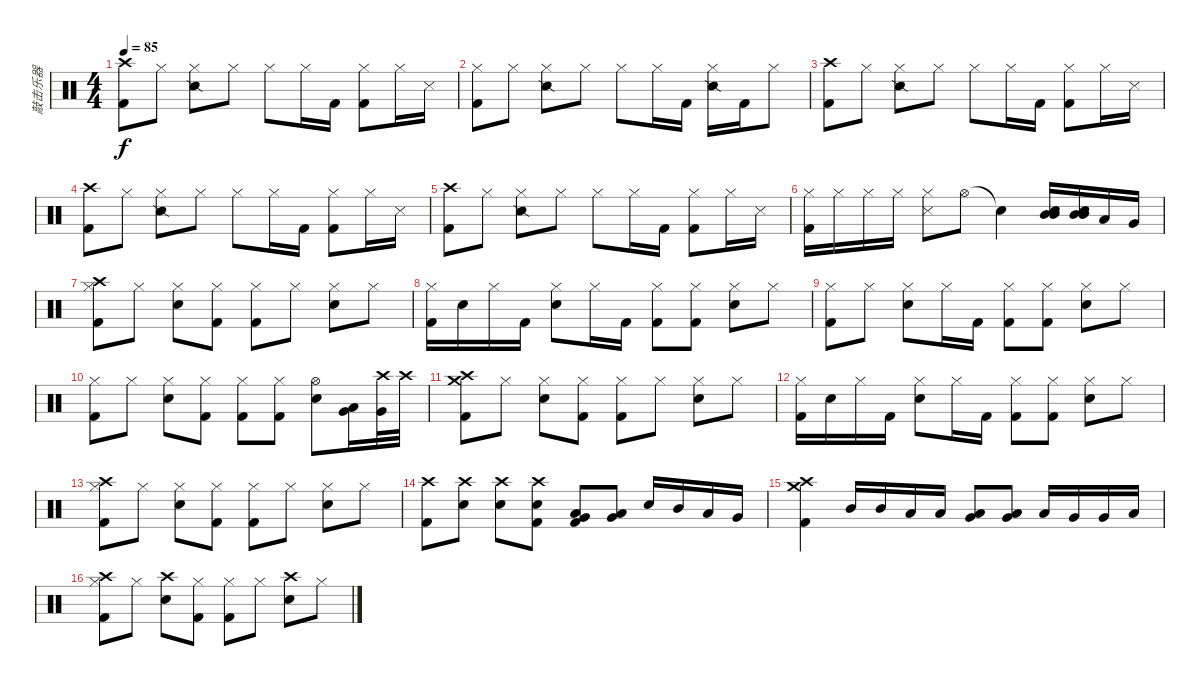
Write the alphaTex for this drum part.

\track ("敲击乐器" "敲击乐器") {instrument percussion}
\staff {score}
\articulation defaults
\ts (4 4)
\tempo 85
\clef neutral
\ks c
("Crash high (hit)" "Kick (hit) 2").8{dy f} "Hi-Hat (closed)".8 ("Snare (side stick) 2" "Hi-Hat (closed)").8 "Hi-Hat (closed)".8 "Hi-Hat (closed)".8 "Hi-Hat (closed)".16 "Kick (hit) 2".16 ("Hi-Hat (closed)" "Kick (hit) 2").8 "Hi-Hat (closed)".16 "Snare (side stick) 3".16 |
("Hi-Hat (closed)" "Kick (hit) 2").8 "Hi-Hat (closed)".8 ("Snare (side stick) 2" "Hi-Hat (closed)").8 "Hi-Hat (closed)".8 "Hi-Hat (closed)".8 "Hi-Hat (closed)".16 "Kick (hit) 2".16 ("Snare (side stick) 2" "Hi-Hat (closed)").16 "Kick (hit) 2".16 "Hi-Hat (closed)".8 |
("Crash high (hit)" "Kick (hit) 2").8 "Hi-Hat (closed)".8 ("Snare (side stick) 2" "Hi-Hat (closed)").8 "Hi-Hat (closed)".8 "Hi-Hat (closed)".8 "Hi-Hat (closed)".16 "Kick (hit) 2".16 ("Hi-Hat (closed)" "Kick (hit) 2").8 "Hi-Hat (closed)".16 "Snare (side stick) 3".16 |
("Crash high (hit)" "Kick (hit) 2").8 "Hi-Hat (closed)".8 ("Snare (side stick) 2" "Hi-Hat (closed)").8 "Hi-Hat (closed)".8 "Hi-Hat (closed)".8 "Hi-Hat (closed)".16 "Kick (hit) 2".16 ("Hi-Hat (closed)" "Kick (hit) 2").8 "Hi-Hat (closed)".16 "Snare (side stick) 3".16 |
("Crash high (hit)" "Kick (hit) 2").8 "Hi-Hat (closed)".8 ("Snare (side stick) 2" "Hi-Hat (closed)").8 "Hi-Hat (closed)".8 "Hi-Hat (closed)".8 "Hi-Hat (closed)".16 "Kick (hit) 2".16 ("Hi-Hat (closed)" "Kick (hit) 2").8 "Hi-Hat (closed)".16 "Snare (side stick) 3".16 |
("Hi-Hat (closed)" "Kick (hit) 2").16 "Hi-Hat (closed)".16 "Hi-Hat (closed)".16 "Hi-Hat (closed)".16 ("Snare (side stick) 3" "Hi-Hat (closed)").8 "Hi-Hat (open)".8 "Snare (hit)"{t}.4 ("Mid Tom (hit)" "Mid Tom (hit)" "Electric Snare (hit)").16 ("Mid Tom (hit)" "Mid Tom (hit)" "Electric Snare (hit)").16 "Low Tom (hit)".16 "Very Low Tom (hit)".16 |
("Crash high (hit)" "Hi-Hat (closed)" "Kick (hit) 2").8 "Hi-Hat (closed)".8 ("Snare (hit) 2" "Hi-Hat (closed)").8 ("Hi-Hat (closed)" "Kick (hit) 2").8 ("Hi-Hat (closed)" "Kick (hit) 2").8 "Hi-Hat (closed)".8 ("Snare (hit) 2" "Hi-Hat (closed)").8 "Hi-Hat (closed)".8 |
("Hi-Hat (closed)" "Kick (hit) 2").16 "Snare (hit) 2".16 "Hi-Hat (closed)".16 "Kick (hit) 2".16 ("Snare (hit) 2" "Hi-Hat (closed)").8 "Hi-Hat (closed)".16 "Kick (hit) 2".16 ("Hi-Hat (closed)" "Kick (hit) 2").8 ("Hi-Hat (closed)" "Kick (hit) 2").8 ("Snare (hit) 2" "Hi-Hat (closed)").8 "Hi-Hat (closed)".8 |
("Hi-Hat (closed)" "Kick (hit) 2").8 "Hi-Hat (closed)".8 ("Snare (hit) 2" "Hi-Hat (closed)").8 "Hi-Hat (closed)".16 "Kick (hit) 2".16 ("Hi-Hat (closed)" "Kick (hit) 2").8 ("Hi-Hat (closed)" "Kick (hit) 2").8 ("Snare (hit) 2" "Hi-Hat (closed)").8 "Hi-Hat (closed)".8 |
("Hi-Hat (closed)" "Kick (hit) 2").8 "Hi-Hat (closed)".8 ("Snare (hit) 2" "Hi-Hat (closed)").8 ("Hi-Hat (closed)" "Kick (hit) 2").8 ("Hi-Hat (closed)" "Kick (hit) 2").8 ("Hi-Hat (closed)" "Kick (hit) 2").8 ("Snare (hit) 2" "Hi-Hat (open)").8 ("Very Low Tom (hit)" "Low Tom (hit)").16 ("Crash high (hit)" "Very Low Tom (hit)").32 "Crash high (hit)".32 |
("Crash high (hit)" "Crash medium (hit)" "Kick (hit) 2").8 "Hi-Hat (closed)".8 ("Snare (hit) 2" "Hi-Hat (closed)").8 ("Hi-Hat (closed)" "Kick (hit) 2").8 ("Hi-Hat (closed)" "Kick (hit) 2").8 "Hi-Hat (closed)".8 ("Snare (hit) 2" "Hi-Hat (closed)").8 "Hi-Hat (closed)".8 |
("Hi-Hat (closed)" "Kick (hit) 2").16 "Snare (hit) 2".16 "Hi-Hat (closed)".16 "Kick (hit) 2".16 ("Snare (hit) 2" "Hi-Hat (closed)").8 "Hi-Hat (closed)".16 "Kick (hit) 2".16 ("Hi-Hat (closed)" "Kick (hit) 2").8 ("Hi-Hat (closed)" "Kick (hit) 2").8 ("Snare (hit) 2" "Hi-Hat (closed)").8 "Hi-Hat (closed)".8 |
("Crash high (hit)" "Hi-Hat (closed)" "Kick (hit) 2").8 "Hi-Hat (closed)".8 ("Snare (hit) 2" "Hi-Hat (closed)").8 ("Hi-Hat (closed)" "Kick (hit) 2").8 ("Hi-Hat (closed)" "Kick (hit) 2").8 "Hi-Hat (closed)".8 ("Snare (hit) 2" "Hi-Hat (closed)").8 "Hi-Hat (closed)".8 |
("Crash high (hit)" "Kick (hit) 2").8 ("Snare (hit) 2" "Crash high (hit)").8 ("Snare (hit) 2" "Crash high (hit)").8 ("Snare (hit) 2" "Crash high (hit)" "Kick (hit) 2").8 ("Low Tom (hit)" "Very Low Tom (hit)" "Kick (hit) 2").8 ("Low Floor Tom (hit)" "Very Low Tom (hit)").8 "Snare (hit) 2".16 "Mid Tom (hit)".16 "Low Tom (hit)".16 "Very Low Tom (hit)".16 |
("Crash medium (hit)" "Crash high (hit)" "Kick (hit) 2").4 "Mid Tom (hit)".16 "Mid Tom (hit)".16 "Low Tom (hit)".16 "Low Tom (hit)".16 ("Very Low Tom (hit)" "Low Tom (hit)").8 ("Very Low Tom (hit)" "Low Tom (hit)").8 "Low Tom (hit)".16 "Very Low Tom (hit)".16 "Very Low Tom (hit)".16 "Low Floor Tom (hit)".16 |
("Crash high (hit)" "Hi-Hat (closed)" "Kick (hit) 2").8 "Hi-Hat (closed)".8 ("Snare (hit) 2" "Crash high (hit)").8 ("Hi-Hat (closed)" "Kick (hit) 2").8 ("Hi-Hat (closed)" "Kick (hit) 2").8 "Hi-Hat (closed)".8 ("Snare (hit) 2" "Crash high (hit)").8 "Hi-Hat (closed)".8
